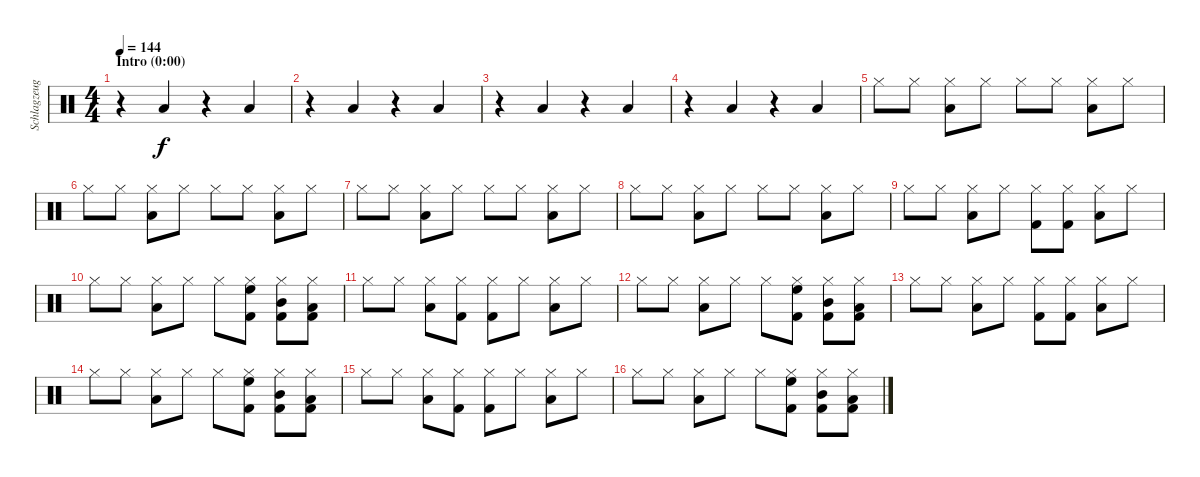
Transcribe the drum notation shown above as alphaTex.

\track ("Schlagzeug" "Schlagzeug") {instrument percussion}
\staff {score}
\articulation defaults
\ts (4 4)
\section ("" "Intro (0:00)")
\tempo 144
\clef neutral
\ks c
r.4{dy f} "Low Tom (hit)".4 r.4 "Low Tom (hit)".4 |
r.4 "Low Tom (hit)".4 r.4 "Low Tom (hit)".4 |
r.4 "Low Tom (hit)".4 r.4 "Low Tom (hit)".4 |
r.4 "Low Tom (hit)".4 r.4 "Low Tom (hit)".4 |
"Hi-Hat (closed)".8 "Hi-Hat (closed)".8 ("Hi-Hat (closed)" "Low Tom (hit)").8 "Hi-Hat (closed)".8 "Hi-Hat (closed)".8 "Hi-Hat (closed)".8 ("Hi-Hat (closed)" "Low Tom (hit)").8 "Hi-Hat (closed)".8 |
"Hi-Hat (closed)".8 "Hi-Hat (closed)".8 ("Hi-Hat (closed)" "Low Tom (hit)").8 "Hi-Hat (closed)".8 "Hi-Hat (closed)".8 "Hi-Hat (closed)".8 ("Hi-Hat (closed)" "Low Tom (hit)").8 "Hi-Hat (closed)".8 |
"Hi-Hat (closed)".8 "Hi-Hat (closed)".8 ("Hi-Hat (closed)" "Low Tom (hit)").8 "Hi-Hat (closed)".8 "Hi-Hat (closed)".8 "Hi-Hat (closed)".8 ("Hi-Hat (closed)" "Low Tom (hit)").8 "Hi-Hat (closed)".8 |
"Hi-Hat (closed)".8 "Hi-Hat (closed)".8 ("Hi-Hat (closed)" "Low Tom (hit)").8 "Hi-Hat (closed)".8 "Hi-Hat (closed)".8 "Hi-Hat (closed)".8 ("Hi-Hat (closed)" "Low Tom (hit)").8 "Hi-Hat (closed)".8 |
"Hi-Hat (closed)".8 "Hi-Hat (closed)".8 ("Hi-Hat (closed)" "Low Tom (hit)").8 "Hi-Hat (closed)".8 ("Hi-Hat (closed)" "Kick (hit) 2").8 ("Hi-Hat (closed)" "Kick (hit) 2").8 ("Hi-Hat (closed)" "Low Tom (hit)").8 "Hi-Hat (closed)".8 |
"Hi-Hat (closed)".8 "Hi-Hat (closed)".8 ("Hi-Hat (closed)" "Low Tom (hit)").8 "Hi-Hat (closed)".8 "Hi-Hat (closed)".8 ("Hi-Hat (closed)" "High Floor Tom (hit)" "Kick (hit) 2").8 ("Hi-Hat (closed)" "Mid Tom (hit)" "Kick (hit) 2").8 ("Hi-Hat (closed)" "Low Tom (hit)" "Kick (hit) 2").8 |
"Hi-Hat (closed)".8 "Hi-Hat (closed)".8 ("Hi-Hat (closed)" "Low Tom (hit)").8 ("Hi-Hat (closed)" "Kick (hit) 2").8 ("Hi-Hat (closed)" "Kick (hit) 2").8 "Hi-Hat (closed)".8 ("Hi-Hat (closed)" "Low Tom (hit)").8 "Hi-Hat (closed)".8 |
"Hi-Hat (closed)".8 "Hi-Hat (closed)".8 ("Hi-Hat (closed)" "Low Tom (hit)").8 "Hi-Hat (closed)".8 "Hi-Hat (closed)".8 ("Hi-Hat (closed)" "High Floor Tom (hit)" "Kick (hit) 2").8 ("Hi-Hat (closed)" "Mid Tom (hit)" "Kick (hit) 2").8 ("Hi-Hat (closed)" "Low Tom (hit)" "Kick (hit) 2").8 |
"Hi-Hat (closed)".8 "Hi-Hat (closed)".8 ("Hi-Hat (closed)" "Low Tom (hit)").8 "Hi-Hat (closed)".8 ("Hi-Hat (closed)" "Kick (hit) 2").8 ("Hi-Hat (closed)" "Kick (hit) 2").8 ("Hi-Hat (closed)" "Low Tom (hit)").8 "Hi-Hat (closed)".8 |
"Hi-Hat (closed)".8 "Hi-Hat (closed)".8 ("Hi-Hat (closed)" "Low Tom (hit)").8 "Hi-Hat (closed)".8 "Hi-Hat (closed)".8 ("Hi-Hat (closed)" "High Floor Tom (hit)" "Kick (hit) 2").8 ("Hi-Hat (closed)" "Mid Tom (hit)" "Kick (hit) 2").8 ("Hi-Hat (closed)" "Low Tom (hit)" "Kick (hit) 2").8 |
"Hi-Hat (closed)".8 "Hi-Hat (closed)".8 ("Hi-Hat (closed)" "Low Tom (hit)").8 ("Hi-Hat (closed)" "Kick (hit) 2").8 ("Hi-Hat (closed)" "Kick (hit) 2").8 "Hi-Hat (closed)".8 ("Hi-Hat (closed)" "Low Tom (hit)").8 "Hi-Hat (closed)".8 |
"Hi-Hat (closed)".8 "Hi-Hat (closed)".8 ("Hi-Hat (closed)" "Low Tom (hit)").8 "Hi-Hat (closed)".8 "Hi-Hat (closed)".8 ("Hi-Hat (closed)" "High Floor Tom (hit)" "Kick (hit) 2").8 ("Hi-Hat (closed)" "Mid Tom (hit)" "Kick (hit) 2").8 ("Hi-Hat (closed)" "Low Tom (hit)" "Kick (hit) 2").8
